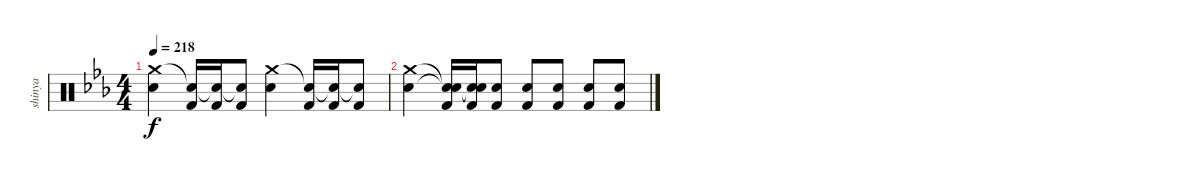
\track ("shinya" "shinya") {instrument percussion}
\staff {score}
\articulation defaults
\ts (4 4)
\tempo 218
\clef neutral
\ks eb
("Crash medium (hit)" "Electric Snare (hit)").4{dy f} ("Snare (hit)"{t} "Kick (hit) 2").16 ("Snare (hit)"{t} "Kick (hit) 2").16 ("Snare (hit)"{t} "Kick (hit) 2").8 ("Crash medium (hit)" "Electric Snare (hit)").4 ("Snare (hit)"{t} "Kick (hit) 2").16 ("Snare (hit)"{t} "Kick (hit) 2").16 ("Snare (hit)"{t} "Kick (hit) 2").8 |
("Crash medium (hit)" "Electric Snare (hit)").4 ("Snare (hit)"{t} "Snare (hit)"{t} "Kick (hit) 2").16 ("Snare (hit)"{t} "Snare (hit)"{t} "Kick (hit) 2").16 ("Electric Snare (hit)" "Kick (hit) 2").8 ("Electric Snare (hit)" "Kick (hit) 2").8 ("Electric Snare (hit)" "Kick (hit) 2").8 ("Electric Snare (hit)" "Kick (hit) 2").8 ("Electric Snare (hit)" "Kick (hit) 2").8
